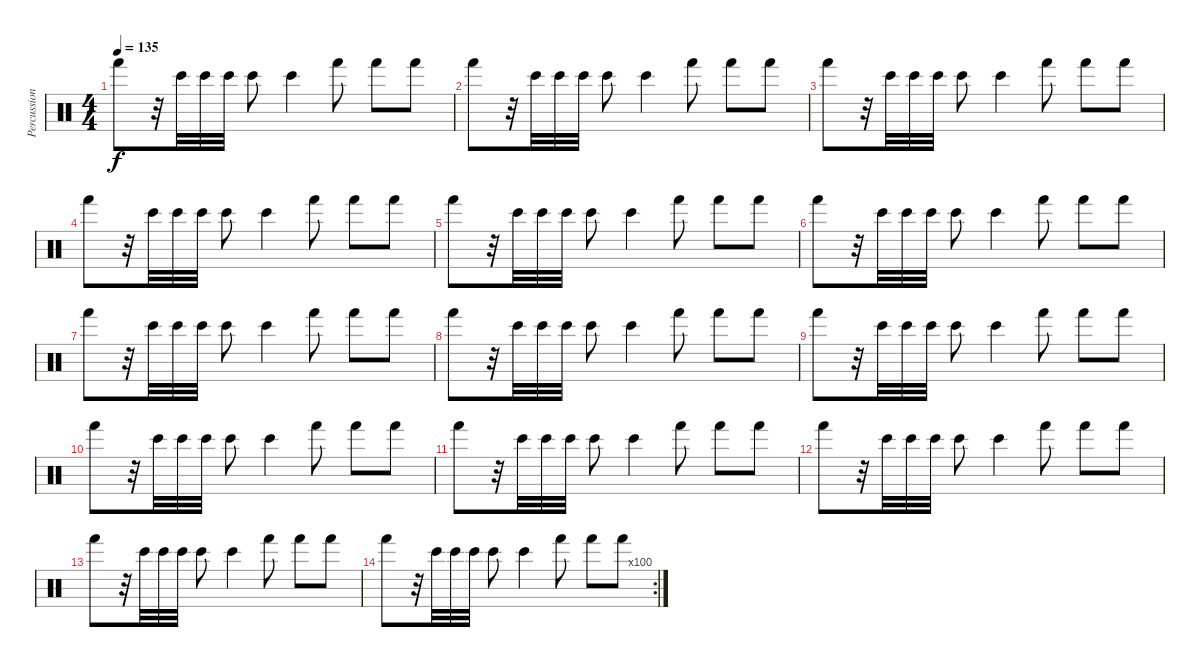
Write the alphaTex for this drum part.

\track ("Percussions" "Percussion") {instrument percussion}
\staff {score}
\articulation defaults
\ts (4 4)
\tempo 135
\clef neutral
\ks c "Hand (hit)".8{dy f}
r.32 "Bongo High (hit)".32 "Bongo High (hit)".32 "Bongo High (hit)".32 "Bongo High (hit)".8 "Bongo High (hit)".4 "Hand (hit)".8 "Hand (hit)".8 "Hand (hit)".8 |
"Hand (hit)".8 r.32 "Bongo High (hit)".32 "Bongo High (hit)".32 "Bongo High (hit)".32 "Bongo High (hit)".8 "Bongo High (hit)".4 "Hand (hit)".8 "Hand (hit)".8 "Hand (hit)".8 |
"Hand (hit)".8 r.32 "Bongo High (hit)".32 "Bongo High (hit)".32 "Bongo High (hit)".32 "Bongo High (hit)".8 "Bongo High (hit)".4 "Hand (hit)".8 "Hand (hit)".8 "Hand (hit)".8 |
"Hand (hit)".8 r.32 "Bongo High (hit)".32 "Bongo High (hit)".32 "Bongo High (hit)".32 "Bongo High (hit)".8 "Bongo High (hit)".4 "Hand (hit)".8 "Hand (hit)".8 "Hand (hit)".8 |
"Hand (hit)".8 r.32 "Bongo High (hit)".32 "Bongo High (hit)".32 "Bongo High (hit)".32 "Bongo High (hit)".8 "Bongo High (hit)".4 "Hand (hit)".8 "Hand (hit)".8 "Hand (hit)".8 |
"Hand (hit)".8 r.32 "Bongo High (hit)".32 "Bongo High (hit)".32 "Bongo High (hit)".32 "Bongo High (hit)".8 "Bongo High (hit)".4 "Hand (hit)".8 "Hand (hit)".8 "Hand (hit)".8 |
"Hand (hit)".8 r.32 "Bongo High (hit)".32 "Bongo High (hit)".32 "Bongo High (hit)".32 "Bongo High (hit)".8 "Bongo High (hit)".4 "Hand (hit)".8 "Hand (hit)".8 "Hand (hit)".8 |
"Hand (hit)".8 r.32 "Bongo High (hit)".32 "Bongo High (hit)".32 "Bongo High (hit)".32 "Bongo High (hit)".8 "Bongo High (hit)".4 "Hand (hit)".8 "Hand (hit)".8 "Hand (hit)".8 |
"Hand (hit)".8 r.32 "Bongo High (hit)".32 "Bongo High (hit)".32 "Bongo High (hit)".32 "Bongo High (hit)".8 "Bongo High (hit)".4 "Hand (hit)".8 "Hand (hit)".8 "Hand (hit)".8 |
"Hand (hit)".8 r.32 "Bongo High (hit)".32 "Bongo High (hit)".32 "Bongo High (hit)".32 "Bongo High (hit)".8 "Bongo High (hit)".4 "Hand (hit)".8 "Hand (hit)".8 "Hand (hit)".8 |
"Hand (hit)".8 r.32 "Bongo High (hit)".32 "Bongo High (hit)".32 "Bongo High (hit)".32 "Bongo High (hit)".8 "Bongo High (hit)".4 "Hand (hit)".8 "Hand (hit)".8 "Hand (hit)".8 |
"Hand (hit)".8 r.32 "Bongo High (hit)".32 "Bongo High (hit)".32 "Bongo High (hit)".32 "Bongo High (hit)".8 "Bongo High (hit)".4 "Hand (hit)".8 "Hand (hit)".8 "Hand (hit)".8 |
"Hand (hit)".8 r.32 "Bongo High (hit)".32 "Bongo High (hit)".32 "Bongo High (hit)".32 "Bongo High (hit)".8 "Bongo High (hit)".4 "Hand (hit)".8 "Hand (hit)".8 "Hand (hit)".8 |
\rc 100 "Hand (hit)".8
r.32 "Bongo High (hit)".32 "Bongo High (hit)".32 "Bongo High (hit)".32 "Bongo High (hit)".8 "Bongo High (hit)".4 "Hand (hit)".8 "Hand (hit)".8 "Hand (hit)".8
